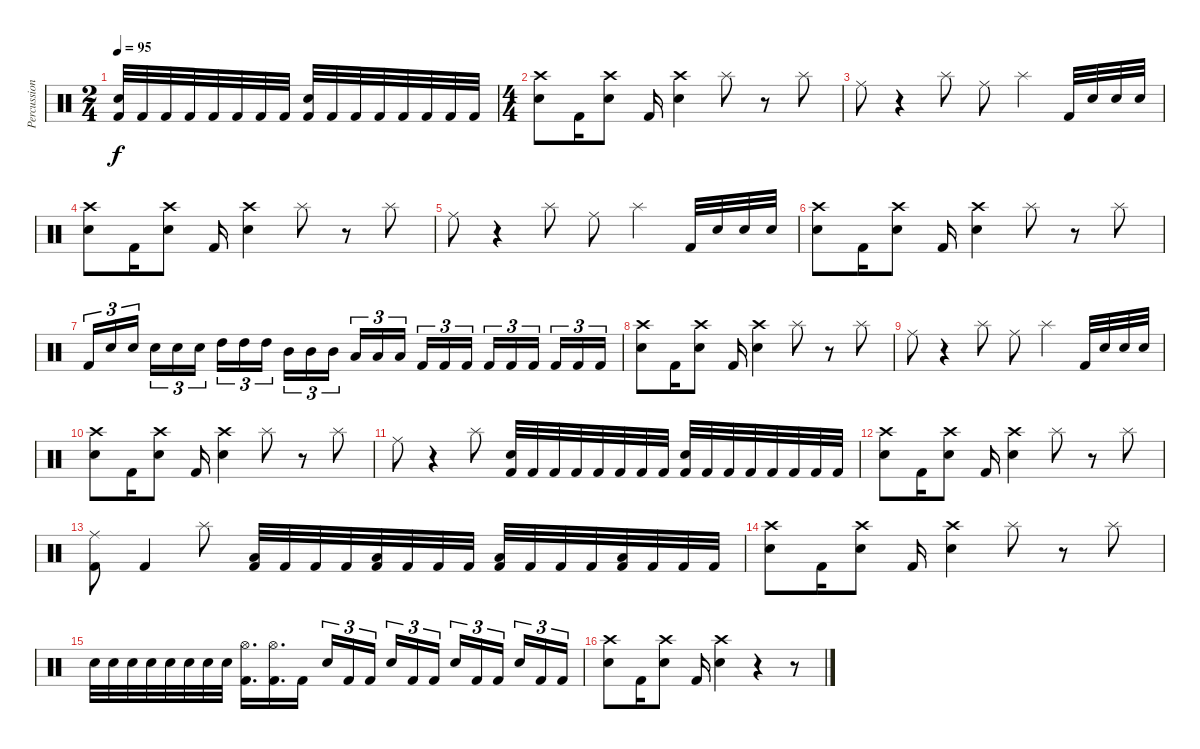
\track ("Percussions" "Percussion") {instrument percussion}
\staff {score}
\articulation defaults
\ts (2 4)
\tempo 95
\clef neutral
\ks c
("Electric Snare (hit)" "Kick (hit) 2").32{dy f} "Kick (hit) 2".32 "Kick (hit) 2".32 "Kick (hit) 2".32 "Kick (hit) 2".32 "Kick (hit) 2".32 "Kick (hit) 2".32 "Kick (hit) 2".32 ("Electric Snare (hit)" "Kick (hit) 2").32 "Kick (hit) 2".32 "Kick (hit) 2".32 "Kick (hit) 2".32 "Kick (hit) 2".32 "Kick (hit) 2".32 "Kick (hit) 2".32 "Kick (hit) 2".32 |
\ts (4 4)
("Crash high (hit)" "Electric Snare (hit)").8 "Kick (hit) 2".16 ("Crash high (hit)" "Electric Snare (hit)").8 "Kick (hit) 2".16 ("Crash high (hit)" "Electric Snare (hit)").4 "Splash (hit)".8 r.8 "Splash (hit)".8 |
"Ride (middle)".8 r.4 "Splash (hit)".8 "Ride (middle)".8 "Splash (hit)".4 "Kick (hit) 2".32 "Electric Snare (hit)".32 "Electric Snare (hit)".32 "Electric Snare (hit)".32 |
("Crash high (hit)" "Electric Snare (hit)").8 "Kick (hit) 2".16 ("Crash high (hit)" "Electric Snare (hit)").8 "Kick (hit) 2".16 ("Crash high (hit)" "Electric Snare (hit)").4 "Splash (hit)".8 r.8 "Splash (hit)".8 |
"Ride (middle)".8 r.4 "Splash (hit)".8 "Ride (middle)".8 "Splash (hit)".4 "Kick (hit) 2".32 "Electric Snare (hit)".32 "Electric Snare (hit)".32 "Electric Snare (hit)".32 |
("Crash high (hit)" "Electric Snare (hit)").8 "Kick (hit) 2".16 ("Crash high (hit)" "Electric Snare (hit)").8 "Kick (hit) 2".16 ("Crash high (hit)" "Electric Snare (hit)").4 "Splash (hit)".8 r.8 "Splash (hit)".8 |
"Kick (hit) 2".16{tu (3 2)} "Electric Snare (hit)".16{tu (3 2)} "Electric Snare (hit)".16{tu (3 2) beam splitsecondary} "Electric Snare (hit)".16{tu (3 2)} "Electric Snare (hit)".16{tu (3 2)} "Electric Snare (hit)".16{tu (3 2)} "High Tom (hit)".16{tu (3 2)} "High Tom (hit)".16{tu (3 2)} "High Tom (hit)".16{tu (3 2) beam splitsecondary} "Mid Tom (hit)".16{tu (3 2)} "Mid Tom (hit)".16{tu (3 2)} "Mid Tom (hit)".16{tu (3 2)} "Low Tom (hit)".16{tu (3 2)} "Low Tom (hit)".16{tu (3 2)} "Low Tom (hit)".16{tu (3 2) beam splitsecondary} "Kick (hit) 2".16{tu (3 2)} "Kick (hit) 2".16{tu (3 2)} "Kick (hit) 2".16{tu (3 2)} "Kick (hit) 2".16{tu (3 2)} "Kick (hit) 2".16{tu (3 2)} "Kick (hit) 2".16{tu (3 2) beam splitsecondary} "Kick (hit) 2".16{tu (3 2)} "Kick (hit) 2".16{tu (3 2)} "Kick (hit) 2".16{tu (3 2)} |
("Crash high (hit)" "Electric Snare (hit)").8 "Kick (hit) 2".16 ("Crash high (hit)" "Electric Snare (hit)").8 "Kick (hit) 2".16 ("Crash high (hit)" "Electric Snare (hit)").4 "Splash (hit)".8 r.8 "Splash (hit)".8 |
"Ride (middle)".8 r.4 "Splash (hit)".8 "Ride (middle)".8 "Splash (hit)".4 "Kick (hit) 2".32 "Electric Snare (hit)".32 "Electric Snare (hit)".32 "Electric Snare (hit)".32 |
("Crash high (hit)" "Electric Snare (hit)").8 "Kick (hit) 2".16 ("Crash high (hit)" "Electric Snare (hit)").8 "Kick (hit) 2".16 ("Crash high (hit)" "Electric Snare (hit)").4 "Splash (hit)".8 r.8 "Splash (hit)".8 |
"Ride (middle)".8 r.4 "Splash (hit)".8 ("Electric Snare (hit)" "Kick (hit) 2").32 "Kick (hit) 2".32 "Kick (hit) 2".32 "Kick (hit) 2".32 "Kick (hit) 2".32 "Kick (hit) 2".32 "Kick (hit) 2".32 "Kick (hit) 2".32 ("Electric Snare (hit)" "Kick (hit) 2").32 "Kick (hit) 2".32 "Kick (hit) 2".32 "Kick (hit) 2".32 "Kick (hit) 2".32 "Kick (hit) 2".32 "Kick (hit) 2".32 "Kick (hit) 2".32 |
("Crash high (hit)" "Electric Snare (hit)").8 "Kick (hit) 2".16 ("Crash high (hit)" "Electric Snare (hit)").8 "Kick (hit) 2".16 ("Crash high (hit)" "Electric Snare (hit)").4 "Splash (hit)".8 r.8 "Splash (hit)".8 |
("Ride (middle)" "Kick (hit) 2").8 "Kick (hit) 2".4 "Splash (hit)".8 ("Low Tom (hit)" "Kick (hit) 2").32 "Kick (hit) 2".32 "Kick (hit) 2".32 "Kick (hit) 2".32 ("Low Tom (hit)" "Kick (hit) 2").32 "Kick (hit) 2".32 "Kick (hit) 2".32 "Kick (hit) 2".32 ("Low Tom (hit)" "Kick (hit) 2").32 "Kick (hit) 2".32 "Kick (hit) 2".32 "Kick (hit) 2".32 ("Low Tom (hit)" "Kick (hit) 2").32 "Kick (hit) 2".32 "Kick (hit) 2".32 "Kick (hit) 2".32 |
("Crash high (hit)" "Electric Snare (hit)").8 "Kick (hit) 2".16 ("Crash high (hit)" "Electric Snare (hit)").8 "Kick (hit) 2".16 ("Crash high (hit)" "Electric Snare (hit)").4 "Splash (hit)".8 r.8 "Splash (hit)".8 |
"Electric Snare (hit)".32 "Electric Snare (hit)".32 "Electric Snare (hit)".32 "Electric Snare (hit)".32 "Electric Snare (hit)".32 "Electric Snare (hit)".32 "Electric Snare (hit)".32 "Electric Snare (hit)".32 ("Hi-Hat (open)" "Kick (hit) 2").16{d} ("Hi-Hat (open)" "Kick (hit) 2").16{d} "Kick (hit) 2".16 "Electric Snare (hit)".16{tu (3 2)} "Kick (hit) 2".16{tu (3 2)} "Kick (hit) 2".16{tu (3 2) beam splitsecondary} "Electric Snare (hit)".16{tu (3 2)} "Kick (hit) 2".16{tu (3 2)} "Kick (hit) 2".16{tu (3 2)} "Electric Snare (hit)".16{tu (3 2)} "Kick (hit) 2".16{tu (3 2)} "Kick (hit) 2".16{tu (3 2) beam splitsecondary} "Electric Snare (hit)".16{tu (3 2)} "Kick (hit) 2".16{tu (3 2)} "Kick (hit) 2".16{tu (3 2)} |
("Crash high (hit)" "Electric Snare (hit)").8 "Kick (hit) 2".16 ("Crash high (hit)" "Electric Snare (hit)").8 "Kick (hit) 2".16 ("Crash high (hit)" "Electric Snare (hit)").4 r.4 r.8
